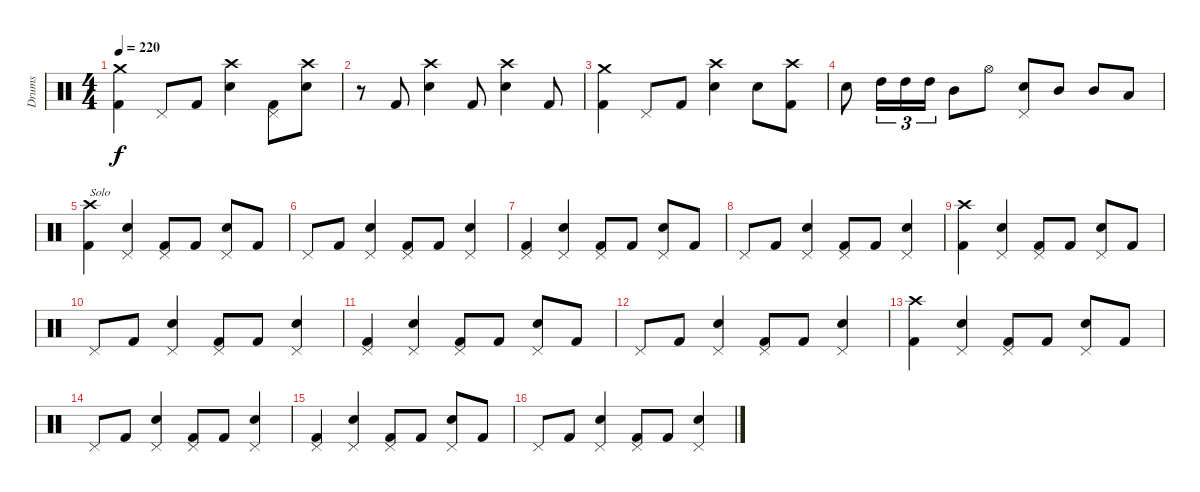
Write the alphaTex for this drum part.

\track ("Drums" "Drums") {instrument percussion}
\staff {score}
\articulation defaults
\ts (4 4)
\tempo 220
\clef neutral
\ks c
("Crash medium (hit)" "Kick (hit) 2").4{dy f} "Pedal Hi-Hat (hit)".8 "Kick (hit) 2".8 ("Crash high (hit)" "Snare (hit) 2").4 ("Pedal Hi-Hat (hit)" "Kick (hit) 2").8 ("Crash high (hit)" "Snare (hit) 2").8 |
r.8 "Kick (hit) 2".8 ("Crash high (hit)" "Snare (hit) 2").4 "Kick (hit) 2".8 ("Crash high (hit)" "Snare (hit) 2").4 "Kick (hit) 2".8 |
("Crash medium (hit)" "Kick (hit) 2").4 "Pedal Hi-Hat (hit)".8 "Kick (hit) 2".8 ("Crash high (hit)" "Snare (hit) 2").4 "Snare (hit) 2".8 ("Crash high (hit)" "Kick (hit) 2").8 |
"Snare (hit) 2".8 "High Tom (hit)".16{tu (3 2)} "High Tom (hit)".16{tu (3 2)} "High Tom (hit)".16{tu (3 2)} "Mid Tom (hit)".8 "Hi-Hat (open)".8 ("Pedal Hi-Hat (hit)" "Snare (hit) 2").8 "Mid Tom (hit)".8 "Mid Tom (hit)".8 "Low Tom (hit)".8 |
("Crash high (hit)" "Kick (hit) 2").4{txt "Solo"} ("Pedal Hi-Hat (hit)" "Snare (hit) 2").4 ("Pedal Hi-Hat (hit)" "Kick (hit) 2").8 "Kick (hit) 2".8 ("Pedal Hi-Hat (hit)" "Snare (hit) 2").8 "Kick (hit) 2".8 |
"Pedal Hi-Hat (hit)".8 "Kick (hit) 2".8 ("Pedal Hi-Hat (hit)" "Snare (hit) 2").4 ("Pedal Hi-Hat (hit)" "Kick (hit) 2").8 "Kick (hit) 2".8 ("Pedal Hi-Hat (hit)" "Snare (hit) 2").4 |
("Pedal Hi-Hat (hit)" "Kick (hit) 2").4 ("Pedal Hi-Hat (hit)" "Snare (hit) 2").4 ("Pedal Hi-Hat (hit)" "Kick (hit) 2").8 "Kick (hit) 2".8 ("Pedal Hi-Hat (hit)" "Snare (hit) 2").8 "Kick (hit) 2".8 |
"Pedal Hi-Hat (hit)".8 "Kick (hit) 2".8 ("Pedal Hi-Hat (hit)" "Snare (hit) 2").4 ("Pedal Hi-Hat (hit)" "Kick (hit) 2").8 "Kick (hit) 2".8 ("Pedal Hi-Hat (hit)" "Snare (hit) 2").4 |
("Crash high (hit)" "Kick (hit) 2").4 ("Pedal Hi-Hat (hit)" "Snare (hit) 2").4 ("Pedal Hi-Hat (hit)" "Kick (hit) 2").8 "Kick (hit) 2".8 ("Pedal Hi-Hat (hit)" "Snare (hit) 2").8 "Kick (hit) 2".8 |
"Pedal Hi-Hat (hit)".8 "Kick (hit) 2".8 ("Pedal Hi-Hat (hit)" "Snare (hit) 2").4 ("Pedal Hi-Hat (hit)" "Kick (hit) 2").8 "Kick (hit) 2".8 ("Pedal Hi-Hat (hit)" "Snare (hit) 2").4 |
("Pedal Hi-Hat (hit)" "Kick (hit) 2").4 ("Pedal Hi-Hat (hit)" "Snare (hit) 2").4 ("Pedal Hi-Hat (hit)" "Kick (hit) 2").8 "Kick (hit) 2".8 ("Pedal Hi-Hat (hit)" "Snare (hit) 2").8 "Kick (hit) 2".8 |
"Pedal Hi-Hat (hit)".8 "Kick (hit) 2".8 ("Pedal Hi-Hat (hit)" "Snare (hit) 2").4 ("Pedal Hi-Hat (hit)" "Kick (hit) 2").8 "Kick (hit) 2".8 ("Pedal Hi-Hat (hit)" "Snare (hit) 2").4 |
("Crash high (hit)" "Kick (hit) 2").4 ("Pedal Hi-Hat (hit)" "Snare (hit) 2").4 ("Pedal Hi-Hat (hit)" "Kick (hit) 2").8 "Kick (hit) 2".8 ("Pedal Hi-Hat (hit)" "Snare (hit) 2").8 "Kick (hit) 2".8 |
"Pedal Hi-Hat (hit)".8 "Kick (hit) 2".8 ("Pedal Hi-Hat (hit)" "Snare (hit) 2").4 ("Pedal Hi-Hat (hit)" "Kick (hit) 2").8 "Kick (hit) 2".8 ("Pedal Hi-Hat (hit)" "Snare (hit) 2").4 |
("Pedal Hi-Hat (hit)" "Kick (hit) 2").4 ("Pedal Hi-Hat (hit)" "Snare (hit) 2").4 ("Pedal Hi-Hat (hit)" "Kick (hit) 2").8 "Kick (hit) 2".8 ("Pedal Hi-Hat (hit)" "Snare (hit) 2").8 "Kick (hit) 2".8 |
"Pedal Hi-Hat (hit)".8 "Kick (hit) 2".8 ("Pedal Hi-Hat (hit)" "Snare (hit) 2").4 ("Pedal Hi-Hat (hit)" "Kick (hit) 2").8 "Kick (hit) 2".8 ("Pedal Hi-Hat (hit)" "Snare (hit) 2").4
